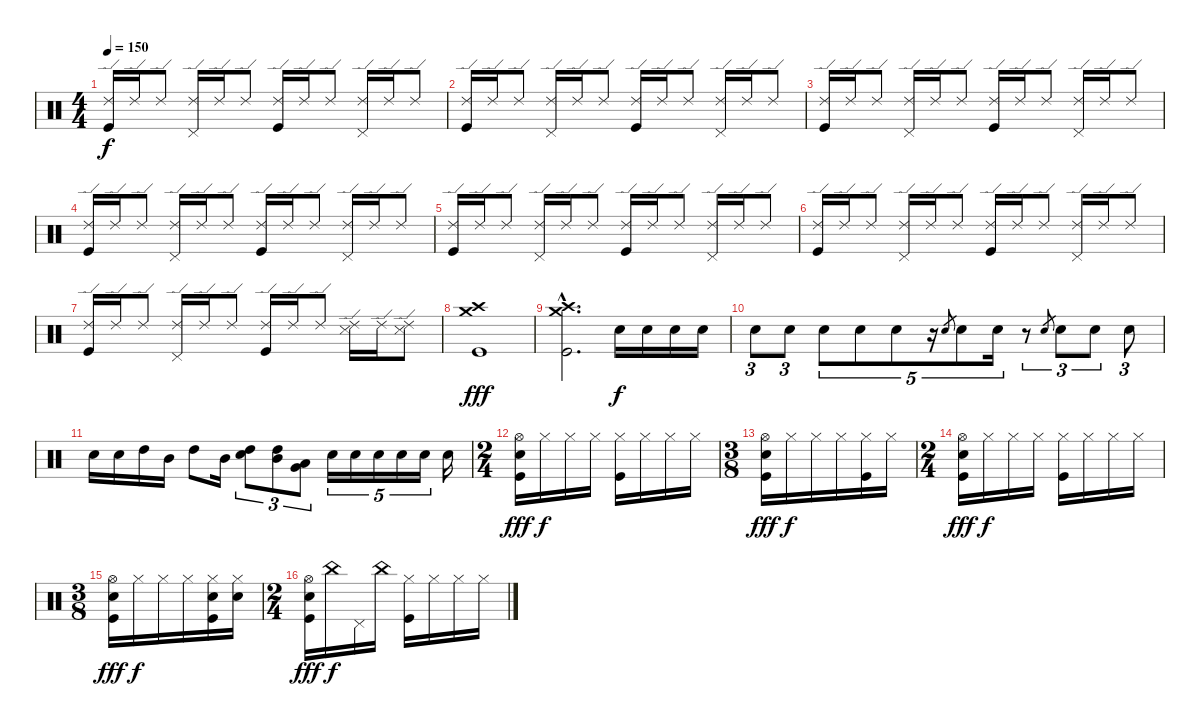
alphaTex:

\track "" {instrument percussion}
\staff {score}
\articulation defaults
\ts (4 4)
\tempo 150
\clef neutral
\ks c
("Ride (edge) 2" "Kick (hit)").16{dy f} "Ride (edge) 2".16 "Ride (edge) 2".8 ("Ride (edge) 2" "Pedal Hi-Hat (hit)").16 "Ride (edge) 2".16 "Ride (edge) 2".8 ("Ride (edge) 2" "Kick (hit)").16 "Ride (edge) 2".16 "Ride (edge) 2".8 ("Ride (edge) 2" "Pedal Hi-Hat (hit)").16 "Ride (edge) 2".16 "Ride (edge) 2".8 |
("Ride (edge) 2" "Kick (hit)").16 "Ride (edge) 2".16 "Ride (edge) 2".8 ("Ride (edge) 2" "Pedal Hi-Hat (hit)").16 "Ride (edge) 2".16 "Ride (edge) 2".8 ("Ride (edge) 2" "Kick (hit)").16 "Ride (edge) 2".16 "Ride (edge) 2".8 ("Ride (edge) 2" "Pedal Hi-Hat (hit)").16 "Ride (edge) 2".16 "Ride (edge) 2".8 |
("Ride (edge) 2" "Kick (hit)").16 "Ride (edge) 2".16 "Ride (edge) 2".8 ("Ride (edge) 2" "Pedal Hi-Hat (hit)").16 "Ride (edge) 2".16 "Ride (edge) 2".8 ("Ride (edge) 2" "Kick (hit)").16 "Ride (edge) 2".16 "Ride (edge) 2".8 ("Ride (edge) 2" "Pedal Hi-Hat (hit)").16 "Ride (edge) 2".16 "Ride (edge) 2".8 |
("Ride (edge) 2" "Kick (hit)").16 "Ride (edge) 2".16 "Ride (edge) 2".8 ("Ride (edge) 2" "Pedal Hi-Hat (hit)").16 "Ride (edge) 2".16 "Ride (edge) 2".8 ("Ride (edge) 2" "Kick (hit)").16 "Ride (edge) 2".16 "Ride (edge) 2".8 ("Ride (edge) 2" "Pedal Hi-Hat (hit)").16 "Ride (edge) 2".16 "Ride (edge) 2".8 |
("Ride (edge) 2" "Kick (hit)").16 "Ride (edge) 2".16 "Ride (edge) 2".8 ("Ride (edge) 2" "Pedal Hi-Hat (hit)").16 "Ride (edge) 2".16 "Ride (edge) 2".8 ("Ride (edge) 2" "Kick (hit)").16 "Ride (edge) 2".16 "Ride (edge) 2".8 ("Ride (edge) 2" "Pedal Hi-Hat (hit)").16 "Ride (edge) 2".16 "Ride (edge) 2".8 |
("Ride (edge) 2" "Kick (hit)").16 "Ride (edge) 2".16 "Ride (edge) 2".8 ("Ride (edge) 2" "Pedal Hi-Hat (hit)").16 "Ride (edge) 2".16 "Ride (edge) 2".8 ("Ride (edge) 2" "Kick (hit)").16 "Ride (edge) 2".16 "Ride (edge) 2".8 ("Ride (edge) 2" "Pedal Hi-Hat (hit)").16 "Ride (edge) 2".16 "Ride (edge) 2".8 |
("Ride (edge) 2" "Kick (hit)").16 "Ride (edge) 2".16 "Ride (edge) 2".8 ("Ride (edge) 2" "Pedal Hi-Hat (hit)").16 "Ride (edge) 2".16 "Ride (edge) 2".8 ("Ride (edge) 2" "Kick (hit)").16 "Ride (edge) 2".16 "Ride (edge) 2".8 ("Ride (edge) 2" "Snare (side stick) 3").16 "Ride (edge) 2".16 ("Ride (edge) 2" "Snare (side stick) 3").8 |
("Crash medium (hit)" "Crash high (hit)" "Kick (hit)").1{dy fff} |
("Crash medium (hit)"{hac} "Crash high (hit)"{hac} "Kick (hit)"{hac}).2{d} "Electric Snare (hit)".16{dy f} "Electric Snare (hit)".16 "Electric Snare (hit)".16 "Electric Snare (hit)".16 |
"Electric Snare (hit)".8{tu (3 2)} "Electric Snare (hit)".8{tu (3 2)} "Electric Snare (hit)".8{tu (5 4)} "Electric Snare (hit)".8{tu (5 4)} "Electric Snare (hit)".8{tu (5 4)} r.16{tu (5 4)} "Electric Snare (hit)".8{gr} "Electric Snare (hit)".8{tu (5 4)} "Electric Snare (hit)".16{tu (5 4)} r.8{tu (3 2)} "Electric Snare (hit)".8{gr} "Electric Snare (hit)".8{tu (3 2)} "Electric Snare (hit)".8{tu (3 2)} "Electric Snare (hit)".8{tu (3 2)} |
"Electric Snare (hit)".16 "Electric Snare (hit)".16 "High Tom (hit)".16 "Mid Tom (hit)".16 "High Tom (hit)".8 "Mid Tom (hit)".16 ("Electric Snare (hit)" "High Tom (hit)").8{tu (3 2)} ("High Tom (hit)" "Mid Tom (hit)").8{tu (3 2)} ("Very Low Tom (hit)" "Low Tom (hit)").8{tu (3 2)} "Electric Snare (hit)".16{tu (5 4)} "Electric Snare (hit)".16{tu (5 4)} "Electric Snare (hit)".16{tu (5 4)} "Electric Snare (hit)".16{tu (5 4)} "Electric Snare (hit)".16{tu (5 4)} "Electric Snare (hit)".16 |
\ts (2 4)
("Hi-Hat (open)" "Electric Snare (hit)" "Kick (hit)").16{dy fff} "Hi-Hat (closed)".16{dy f} "Hi-Hat (closed)".16 "Hi-Hat (closed)".16 ("Hi-Hat (closed)" "Kick (hit)").16 "Hi-Hat (closed)".16 "Hi-Hat (closed)".16 "Hi-Hat (closed)".16 |
\ts (3 8)
("Hi-Hat (open)" "Electric Snare (hit)" "Kick (hit)").16{dy fff} "Hi-Hat (closed)".16{dy f} "Hi-Hat (closed)".16 "Hi-Hat (closed)".16 ("Hi-Hat (closed)" "Kick (hit)").16 "Hi-Hat (closed)".16 |
\ts (2 4)
("Hi-Hat (open)" "Electric Snare (hit)" "Kick (hit)").16{dy fff} "Hi-Hat (closed)".16{dy f} "Hi-Hat (closed)".16 "Hi-Hat (closed)".16 ("Hi-Hat (closed)" "Kick (hit)").16 "Hi-Hat (closed)".16 "Hi-Hat (closed)".16 "Hi-Hat (closed)".16 |
\ts (3 8)
("Hi-Hat (open)" "Electric Snare (hit)" "Kick (hit)").16{dy fff} "Hi-Hat (closed)".16{dy f} "Hi-Hat (closed)".16 "Hi-Hat (closed)".16 ("Hi-Hat (closed)" "Electric Snare (hit)" "Kick (hit)").16 ("Hi-Hat (closed)" "Electric Snare (hit)").16 |
\ts (2 4)
("Hi-Hat (open)" "Electric Snare (hit)" "Kick (hit)").16{dy fff} "China (hit)".16{dy f} "Pedal Hi-Hat (hit)".16 "China (hit)".16 ("Hi-Hat (closed)" "Kick (hit)").16 "Hi-Hat (closed)".16 "Hi-Hat (closed)".16 "Hi-Hat (closed)".16
